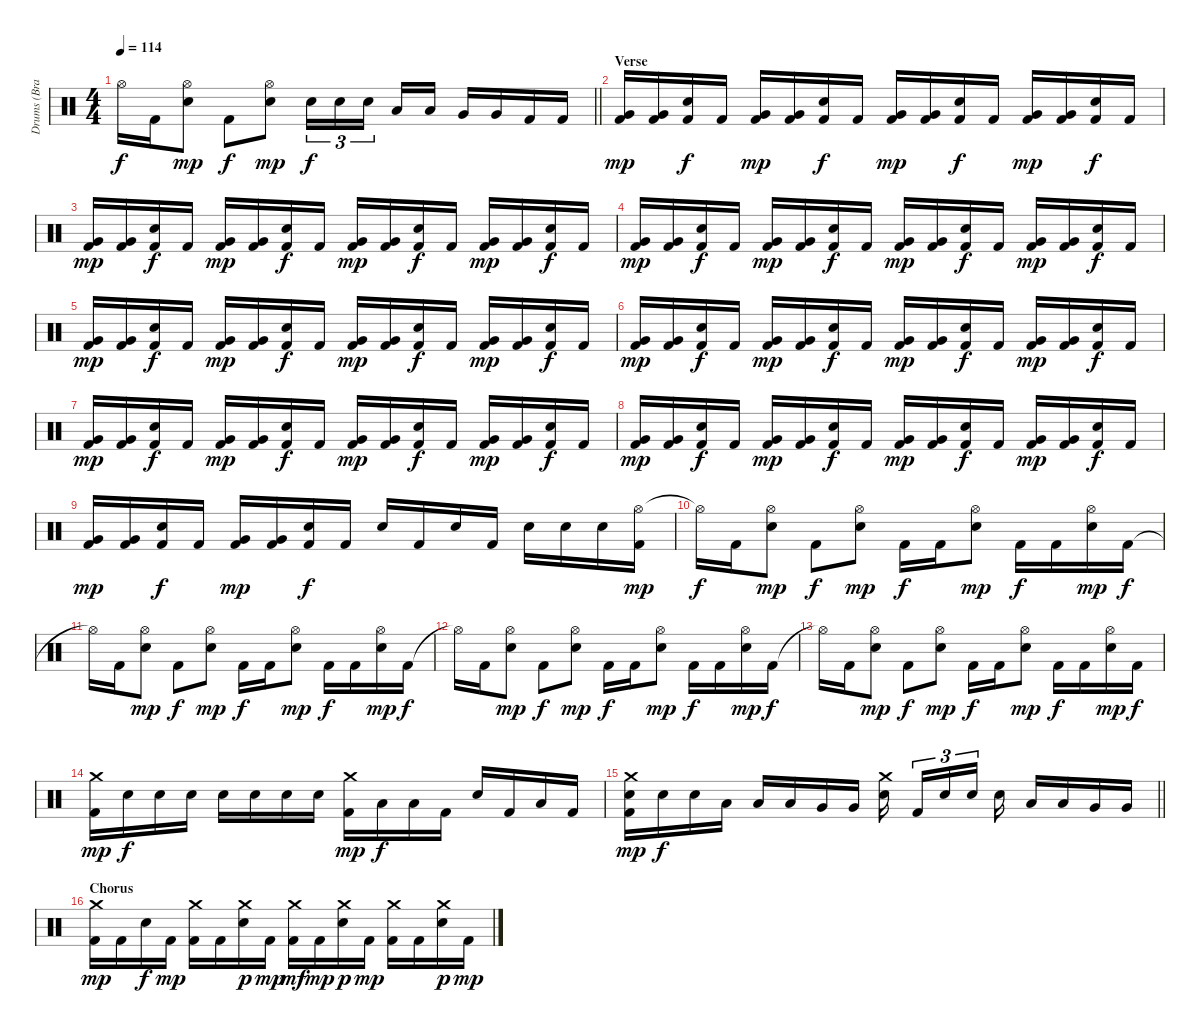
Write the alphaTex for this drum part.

\track ("Drums (Brandon Saller)" "Drums (Bra") {instrument percussion}
\staff {score}
\articulation defaults
\ts (4 4)
\tempo 114
\clef neutral
\barLineRight lightlight
\ks c "Hi-Hat (open)"{t}.16{dy f} "Kick (hit) 2".16
("Hi-Hat (open)" "Electric Snare (hit)").8{dy mp} "Kick (hit) 2".8{dy f} ("Hi-Hat (open)" "Electric Snare (hit)").8{dy mp} "Electric Snare (hit)".16{tu (3 2) dy f} "Electric Snare (hit)".16{tu (3 2)} "Electric Snare (hit)".16{tu (3 2) beam splitsecondary} "Low Tom (hit)".16 "Low Tom (hit)".16 "Very Low Tom (hit)".16 "Very Low Tom (hit)".16 "Kick (hit) 2".16 "Kick (hit) 2".16 |
\section ("" "Verse")
("Very Low Tom (hit)" "Kick (hit) 2").16{dy mp} ("Very Low Tom (hit)" "Kick (hit) 2").16 ("Electric Snare (hit)" "Kick (hit) 2").16{dy f} "Kick (hit) 2".16 ("Very Low Tom (hit)" "Kick (hit) 2").16{dy mp} ("Very Low Tom (hit)" "Kick (hit) 2").16 ("Electric Snare (hit)" "Kick (hit) 2").16{dy f} "Kick (hit) 2".16 ("Very Low Tom (hit)" "Kick (hit) 2").16{dy mp} ("Very Low Tom (hit)" "Kick (hit) 2").16 ("Electric Snare (hit)" "Kick (hit) 2").16{dy f} "Kick (hit) 2".16 ("Very Low Tom (hit)" "Kick (hit) 2").16{dy mp} ("Very Low Tom (hit)" "Kick (hit) 2").16 ("Electric Snare (hit)" "Kick (hit) 2").16{dy f} "Kick (hit) 2".16 |
("Very Low Tom (hit)" "Kick (hit) 2").16{dy mp} ("Very Low Tom (hit)" "Kick (hit) 2").16 ("Electric Snare (hit)" "Kick (hit) 2").16{dy f} "Kick (hit) 2".16 ("Very Low Tom (hit)" "Kick (hit) 2").16{dy mp} ("Very Low Tom (hit)" "Kick (hit) 2").16 ("Electric Snare (hit)" "Kick (hit) 2").16{dy f} "Kick (hit) 2".16 ("Very Low Tom (hit)" "Kick (hit) 2").16{dy mp} ("Very Low Tom (hit)" "Kick (hit) 2").16 ("Electric Snare (hit)" "Kick (hit) 2").16{dy f} "Kick (hit) 2".16 ("Very Low Tom (hit)" "Kick (hit) 2").16{dy mp} ("Very Low Tom (hit)" "Kick (hit) 2").16 ("Electric Snare (hit)" "Kick (hit) 2").16{dy f} "Kick (hit) 2".16 |
("Very Low Tom (hit)" "Kick (hit) 2").16{dy mp} ("Very Low Tom (hit)" "Kick (hit) 2").16 ("Electric Snare (hit)" "Kick (hit) 2").16{dy f} "Kick (hit) 2".16 ("Very Low Tom (hit)" "Kick (hit) 2").16{dy mp} ("Very Low Tom (hit)" "Kick (hit) 2").16 ("Electric Snare (hit)" "Kick (hit) 2").16{dy f} "Kick (hit) 2".16 ("Very Low Tom (hit)" "Kick (hit) 2").16{dy mp} ("Very Low Tom (hit)" "Kick (hit) 2").16 ("Electric Snare (hit)" "Kick (hit) 2").16{dy f} "Kick (hit) 2".16 ("Very Low Tom (hit)" "Kick (hit) 2").16{dy mp} ("Very Low Tom (hit)" "Kick (hit) 2").16 ("Electric Snare (hit)" "Kick (hit) 2").16{dy f} "Kick (hit) 2".16 |
("Very Low Tom (hit)" "Kick (hit) 2").16{dy mp} ("Very Low Tom (hit)" "Kick (hit) 2").16 ("Electric Snare (hit)" "Kick (hit) 2").16{dy f} "Kick (hit) 2".16 ("Very Low Tom (hit)" "Kick (hit) 2").16{dy mp} ("Very Low Tom (hit)" "Kick (hit) 2").16 ("Electric Snare (hit)" "Kick (hit) 2").16{dy f} "Kick (hit) 2".16 ("Very Low Tom (hit)" "Kick (hit) 2").16{dy mp} ("Very Low Tom (hit)" "Kick (hit) 2").16 ("Electric Snare (hit)" "Kick (hit) 2").16{dy f} "Kick (hit) 2".16 ("Very Low Tom (hit)" "Kick (hit) 2").16{dy mp} ("Very Low Tom (hit)" "Kick (hit) 2").16 ("Electric Snare (hit)" "Kick (hit) 2").16{dy f} "Kick (hit) 2".16 |
("Very Low Tom (hit)" "Kick (hit) 2").16{dy mp} ("Very Low Tom (hit)" "Kick (hit) 2").16 ("Electric Snare (hit)" "Kick (hit) 2").16{dy f} "Kick (hit) 2".16 ("Very Low Tom (hit)" "Kick (hit) 2").16{dy mp} ("Very Low Tom (hit)" "Kick (hit) 2").16 ("Electric Snare (hit)" "Kick (hit) 2").16{dy f} "Kick (hit) 2".16 ("Very Low Tom (hit)" "Kick (hit) 2").16{dy mp} ("Very Low Tom (hit)" "Kick (hit) 2").16 ("Electric Snare (hit)" "Kick (hit) 2").16{dy f} "Kick (hit) 2".16 ("Very Low Tom (hit)" "Kick (hit) 2").16{dy mp} ("Very Low Tom (hit)" "Kick (hit) 2").16 ("Electric Snare (hit)" "Kick (hit) 2").16{dy f} "Kick (hit) 2".16 |
("Very Low Tom (hit)" "Kick (hit) 2").16{dy mp} ("Very Low Tom (hit)" "Kick (hit) 2").16 ("Electric Snare (hit)" "Kick (hit) 2").16{dy f} "Kick (hit) 2".16 ("Very Low Tom (hit)" "Kick (hit) 2").16{dy mp} ("Very Low Tom (hit)" "Kick (hit) 2").16 ("Electric Snare (hit)" "Kick (hit) 2").16{dy f} "Kick (hit) 2".16 ("Very Low Tom (hit)" "Kick (hit) 2").16{dy mp} ("Very Low Tom (hit)" "Kick (hit) 2").16 ("Electric Snare (hit)" "Kick (hit) 2").16{dy f} "Kick (hit) 2".16 ("Very Low Tom (hit)" "Kick (hit) 2").16{dy mp} ("Very Low Tom (hit)" "Kick (hit) 2").16 ("Electric Snare (hit)" "Kick (hit) 2").16{dy f} "Kick (hit) 2".16 |
("Very Low Tom (hit)" "Kick (hit) 2").16{dy mp} ("Very Low Tom (hit)" "Kick (hit) 2").16 ("Electric Snare (hit)" "Kick (hit) 2").16{dy f} "Kick (hit) 2".16 ("Very Low Tom (hit)" "Kick (hit) 2").16{dy mp} ("Very Low Tom (hit)" "Kick (hit) 2").16 ("Electric Snare (hit)" "Kick (hit) 2").16{dy f} "Kick (hit) 2".16 ("Very Low Tom (hit)" "Kick (hit) 2").16{dy mp} ("Very Low Tom (hit)" "Kick (hit) 2").16 ("Electric Snare (hit)" "Kick (hit) 2").16{dy f} "Kick (hit) 2".16 ("Very Low Tom (hit)" "Kick (hit) 2").16{dy mp} ("Very Low Tom (hit)" "Kick (hit) 2").16 ("Electric Snare (hit)" "Kick (hit) 2").16{dy f} "Kick (hit) 2".16 |
("Very Low Tom (hit)" "Kick (hit) 2").16{dy mp} ("Very Low Tom (hit)" "Kick (hit) 2").16 ("Electric Snare (hit)" "Kick (hit) 2").16{dy f} "Kick (hit) 2".16 ("Very Low Tom (hit)" "Kick (hit) 2").16{dy mp} ("Very Low Tom (hit)" "Kick (hit) 2").16 ("Electric Snare (hit)" "Kick (hit) 2").16{dy f} "Kick (hit) 2".16 "Electric Snare (hit)".16 "Kick (hit) 2".16 "Electric Snare (hit)".16 "Kick (hit) 2".16 "Electric Snare (hit)".16 "Electric Snare (hit)".16 "Electric Snare (hit)".16 ("Hi-Hat (open)" "Kick (hit) 2").16{dy mp} |
"Hi-Hat (open)"{t}.16{dy f} "Kick (hit) 2".16 ("Hi-Hat (open)" "Electric Snare (hit)").8{dy mp} "Kick (hit) 2".8{dy f} ("Hi-Hat (open)" "Electric Snare (hit)").8{dy mp} "Kick (hit) 2".16{dy f} "Kick (hit) 2".16 ("Hi-Hat (open)" "Electric Snare (hit)").8{dy mp} "Kick (hit) 2".16{dy f} "Kick (hit) 2".16 ("Hi-Hat (open)" "Electric Snare (hit)").16{dy mp} "Kick (hit) 2".16{dy f} |
"Hi-Hat (open)"{t}.16 "Kick (hit) 2".16 ("Hi-Hat (open)" "Electric Snare (hit)").8{dy mp} "Kick (hit) 2".8{dy f} ("Hi-Hat (open)" "Electric Snare (hit)").8{dy mp} "Kick (hit) 2".16{dy f} "Kick (hit) 2".16 ("Hi-Hat (open)" "Electric Snare (hit)").8{dy mp} "Kick (hit) 2".16{dy f} "Kick (hit) 2".16 ("Hi-Hat (open)" "Electric Snare (hit)").16{dy mp} "Kick (hit) 2".16{dy f} |
"Hi-Hat (open)"{t}.16 "Kick (hit) 2".16 ("Hi-Hat (open)" "Electric Snare (hit)").8{dy mp} "Kick (hit) 2".8{dy f} ("Hi-Hat (open)" "Electric Snare (hit)").8{dy mp} "Kick (hit) 2".16{dy f} "Kick (hit) 2".16 ("Hi-Hat (open)" "Electric Snare (hit)").8{dy mp} "Kick (hit) 2".16{dy f} "Kick (hit) 2".16 ("Hi-Hat (open)" "Electric Snare (hit)").16{dy mp} "Kick (hit) 2".16{dy f} |
"Hi-Hat (open)"{t}.16 "Kick (hit) 2".16 ("Hi-Hat (open)" "Electric Snare (hit)").8{dy mp} "Kick (hit) 2".8{dy f} ("Hi-Hat (open)" "Electric Snare (hit)").8{dy mp} "Kick (hit) 2".16{dy f} "Kick (hit) 2".16 ("Hi-Hat (open)" "Electric Snare (hit)").8{dy mp} "Kick (hit) 2".16{dy f} "Kick (hit) 2".16 ("Hi-Hat (open)" "Electric Snare (hit)").16{dy mp} "Kick (hit) 2".16{dy f} |
("Crash medium (hit)" "Kick (hit) 2").16{dy mp} "Electric Snare (hit)".16{dy f} "Electric Snare (hit)".16 "Electric Snare (hit)".16 "Electric Snare (hit)".16 "Electric Snare (hit)".16 "Electric Snare (hit)".16 "Electric Snare (hit)".16 ("Crash medium (hit)" "Kick (hit) 2").16{dy mp} "Low Tom (hit)".16{dy f} "Low Tom (hit)".16 "Kick (hit) 2".16 "Electric Snare (hit)".16 "Kick (hit) 2".16 "Low Tom (hit)".16 "Kick (hit) 2".16 |
\barLineRight lightlight
("Crash medium (hit)" "Electric Snare (hit)" "Kick (hit) 2").16{dy mp} "Electric Snare (hit)".16{dy f} "Electric Snare (hit)".16 "Low Tom (hit)".16 "Low Tom (hit)".16 "Low Tom (hit)".16 "Very Low Tom (hit)".16 "Very Low Tom (hit)".16 ("Crash medium (hit)" "Electric Snare (hit)").16{beam splitsecondary} "Kick (hit) 2".16{tu (3 2)} "Electric Snare (hit)".16{tu (3 2)} "Electric Snare (hit)".16{tu (3 2) beam splitsecondary} "Electric Snare (hit)".16 "Low Tom (hit)".16 "Low Tom (hit)".16 "Very Low Tom (hit)".16 "Very Low Tom (hit)".16 |
\section ("" "Chorus")
("Crash medium (hit)" "Kick (hit) 2").16{dy mp} "Kick (hit) 2".16 "Electric Snare (hit)".16{dy f} "Kick (hit) 2".16{dy mp} ("Crash medium (hit)" "Kick (hit) 2").16 "Kick (hit) 2".16 ("Crash medium (hit)" "Electric Snare (hit)").16{dy p} "Kick (hit) 2".16{dy mp} ("Crash medium (hit)" "Kick (hit) 2").16{dy mf} "Kick (hit) 2".16{dy mp} ("Crash medium (hit)" "Electric Snare (hit)").16{dy p} "Kick (hit) 2".16{dy mp} ("Crash medium (hit)" "Kick (hit) 2").16 "Kick (hit) 2".16 ("Crash medium (hit)" "Electric Snare (hit)").16{dy p} "Kick (hit) 2".16{dy mp}
